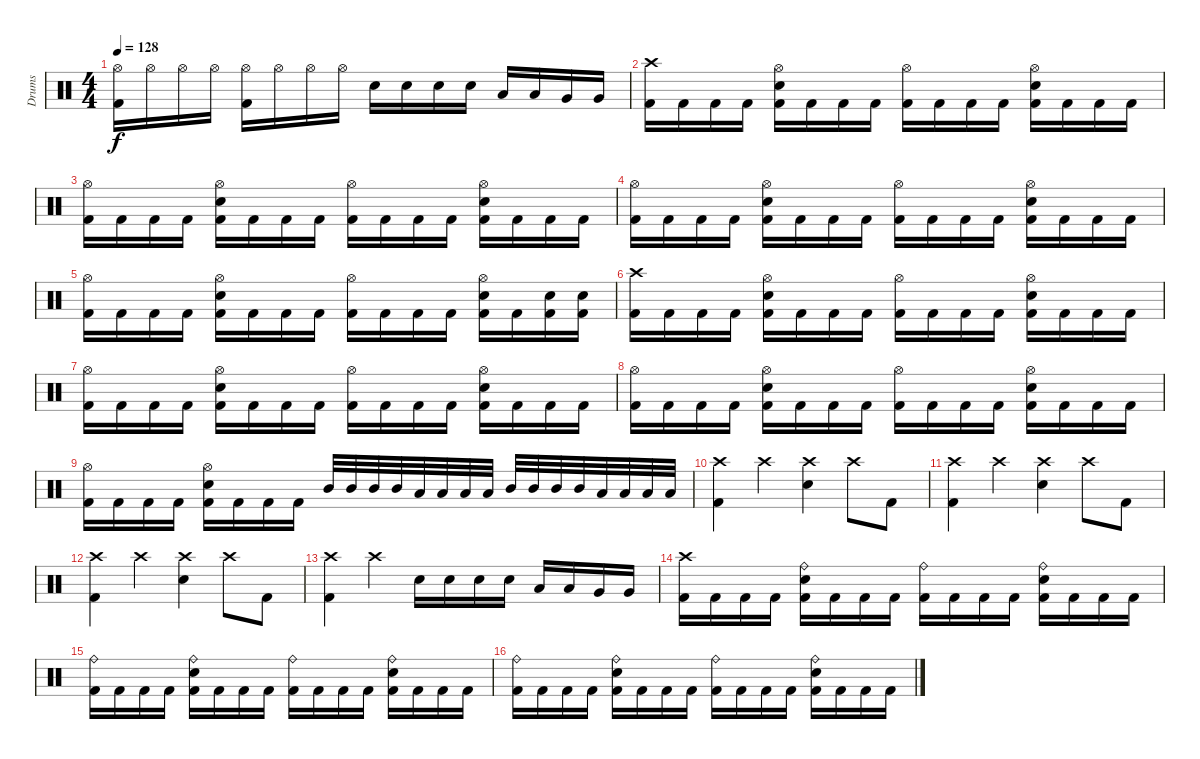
\track ("Drums" "Drums") {instrument percussion}
\staff {score}
\articulation defaults
\ts (4 4)
\tempo 128
\clef neutral
\ks c
("Hi-Hat (open)" "Kick (hit) 2").16{dy f} "Hi-Hat (open)".16 "Hi-Hat (open)".16 "Hi-Hat (open)".16 ("Hi-Hat (open)" "Kick (hit) 2").16 "Hi-Hat (open)".16 "Hi-Hat (open)".16 "Hi-Hat (open)".16 "Electric Snare (hit)".16 "Electric Snare (hit)".16 "Electric Snare (hit)".16 "Electric Snare (hit)".16 "Low Tom (hit)".16 "Low Tom (hit)".16 "Very Low Tom (hit)".16 "Very Low Tom (hit)".16 |
("Crash high (hit)" "Kick (hit) 2").16 "Kick (hit) 2".16 "Kick (hit) 2".16 "Kick (hit) 2".16 ("Hi-Hat (open)" "Electric Snare (hit)" "Kick (hit) 2").16 "Kick (hit) 2".16 "Kick (hit) 2".16 "Kick (hit) 2".16 ("Hi-Hat (open)" "Kick (hit) 2").16 "Kick (hit) 2".16 "Kick (hit) 2".16 "Kick (hit) 2".16 ("Hi-Hat (open)" "Electric Snare (hit)" "Kick (hit) 2").16 "Kick (hit) 2".16 "Kick (hit) 2".16 "Kick (hit) 2".16 |
("Hi-Hat (open)" "Kick (hit) 2").16 "Kick (hit) 2".16 "Kick (hit) 2".16 "Kick (hit) 2".16 ("Hi-Hat (open)" "Electric Snare (hit)" "Kick (hit) 2").16 "Kick (hit) 2".16 "Kick (hit) 2".16 "Kick (hit) 2".16 ("Hi-Hat (open)" "Kick (hit) 2").16 "Kick (hit) 2".16 "Kick (hit) 2".16 "Kick (hit) 2".16 ("Hi-Hat (open)" "Electric Snare (hit)" "Kick (hit) 2").16 "Kick (hit) 2".16 "Kick (hit) 2".16 "Kick (hit) 2".16 |
("Hi-Hat (open)" "Kick (hit) 2").16 "Kick (hit) 2".16 "Kick (hit) 2".16 "Kick (hit) 2".16 ("Hi-Hat (open)" "Electric Snare (hit)" "Kick (hit) 2").16 "Kick (hit) 2".16 "Kick (hit) 2".16 "Kick (hit) 2".16 ("Hi-Hat (open)" "Kick (hit) 2").16 "Kick (hit) 2".16 "Kick (hit) 2".16 "Kick (hit) 2".16 ("Hi-Hat (open)" "Electric Snare (hit)" "Kick (hit) 2").16 "Kick (hit) 2".16 "Kick (hit) 2".16 "Kick (hit) 2".16 |
("Hi-Hat (open)" "Kick (hit) 2").16 "Kick (hit) 2".16 "Kick (hit) 2".16 "Kick (hit) 2".16 ("Hi-Hat (open)" "Electric Snare (hit)" "Kick (hit) 2").16 "Kick (hit) 2".16 "Kick (hit) 2".16 "Kick (hit) 2".16 ("Hi-Hat (open)" "Kick (hit) 2").16 "Kick (hit) 2".16 "Kick (hit) 2".16 "Kick (hit) 2".16 ("Hi-Hat (open)" "Electric Snare (hit)" "Kick (hit) 2").16 "Kick (hit) 2".16 ("Electric Snare (hit)" "Kick (hit) 2").16 ("Electric Snare (hit)" "Kick (hit) 2").16 |
("Crash high (hit)" "Kick (hit) 2").16 "Kick (hit) 2".16 "Kick (hit) 2".16 "Kick (hit) 2".16 ("Hi-Hat (open)" "Electric Snare (hit)" "Kick (hit) 2").16 "Kick (hit) 2".16 "Kick (hit) 2".16 "Kick (hit) 2".16 ("Hi-Hat (open)" "Kick (hit) 2").16 "Kick (hit) 2".16 "Kick (hit) 2".16 "Kick (hit) 2".16 ("Hi-Hat (open)" "Electric Snare (hit)" "Kick (hit) 2").16 "Kick (hit) 2".16 "Kick (hit) 2".16 "Kick (hit) 2".16 |
("Hi-Hat (open)" "Kick (hit) 2").16 "Kick (hit) 2".16 "Kick (hit) 2".16 "Kick (hit) 2".16 ("Hi-Hat (open)" "Electric Snare (hit)" "Kick (hit) 2").16 "Kick (hit) 2".16 "Kick (hit) 2".16 "Kick (hit) 2".16 ("Hi-Hat (open)" "Kick (hit) 2").16 "Kick (hit) 2".16 "Kick (hit) 2".16 "Kick (hit) 2".16 ("Hi-Hat (open)" "Electric Snare (hit)" "Kick (hit) 2").16 "Kick (hit) 2".16 "Kick (hit) 2".16 "Kick (hit) 2".16 |
("Hi-Hat (open)" "Kick (hit) 2").16 "Kick (hit) 2".16 "Kick (hit) 2".16 "Kick (hit) 2".16 ("Hi-Hat (open)" "Electric Snare (hit)" "Kick (hit) 2").16 "Kick (hit) 2".16 "Kick (hit) 2".16 "Kick (hit) 2".16 ("Hi-Hat (open)" "Kick (hit) 2").16 "Kick (hit) 2".16 "Kick (hit) 2".16 "Kick (hit) 2".16 ("Hi-Hat (open)" "Electric Snare (hit)" "Kick (hit) 2").16 "Kick (hit) 2".16 "Kick (hit) 2".16 "Kick (hit) 2".16 |
("Hi-Hat (open)" "Kick (hit) 2").16 "Kick (hit) 2".16 "Kick (hit) 2".16 "Kick (hit) 2".16 ("Hi-Hat (open)" "Electric Snare (hit)" "Kick (hit) 2").16 "Kick (hit) 2".16 "Kick (hit) 2".16 "Kick (hit) 2".16 "Mid Tom (hit)".32 "Mid Tom (hit)".32 "Mid Tom (hit)".32 "Mid Tom (hit)".32 "Low Tom (hit)".32 "Low Tom (hit)".32 "Low Tom (hit)".32 "Low Tom (hit)".32 "Mid Tom (hit)".32 "Mid Tom (hit)".32 "Mid Tom (hit)".32 "Mid Tom (hit)".32 "Low Tom (hit)".32 "Low Tom (hit)".32 "Low Tom (hit)".32 "Low Tom (hit)".32 |
("Crash high (hit)" "Kick (hit) 2").4 "Crash high (hit)".4 ("Crash high (hit)" "Electric Snare (hit)").4 "Crash high (hit)".8 "Kick (hit) 2".8 |
("Crash high (hit)" "Kick (hit) 2").4 "Crash high (hit)".4 ("Crash high (hit)" "Electric Snare (hit)").4 "Crash high (hit)".8 "Kick (hit) 2".8 |
("Crash high (hit)" "Kick (hit) 2").4 "Crash high (hit)".4 ("Crash high (hit)" "Electric Snare (hit)").4 "Crash high (hit)".8 "Kick (hit) 2".8 |
("Crash high (hit)" "Kick (hit) 2").4 "Crash high (hit)".4 "Electric Snare (hit)".16 "Electric Snare (hit)".16 "Electric Snare (hit)".16 "Electric Snare (hit)".16 "Low Tom (hit)".16 "Low Tom (hit)".16 "Very Low Tom (hit)".16 "Very Low Tom (hit)".16 |
("Crash high (hit)" "Kick (hit) 2").16 "Kick (hit) 2".16 "Kick (hit) 2".16 "Kick (hit) 2".16 ("Ride (bell)" "Electric Snare (hit)" "Kick (hit) 2").16 "Kick (hit) 2".16 "Kick (hit) 2".16 "Kick (hit) 2".16 ("Ride (bell)" "Kick (hit) 2").16 "Kick (hit) 2".16 "Kick (hit) 2".16 "Kick (hit) 2".16 ("Ride (bell)" "Electric Snare (hit)" "Kick (hit) 2").16 "Kick (hit) 2".16 "Kick (hit) 2".16 "Kick (hit) 2".16 |
("Ride (bell)" "Kick (hit) 2").16 "Kick (hit) 2".16 "Kick (hit) 2".16 "Kick (hit) 2".16 ("Ride (bell)" "Electric Snare (hit)" "Kick (hit) 2").16 "Kick (hit) 2".16 "Kick (hit) 2".16 "Kick (hit) 2".16 ("Ride (bell)" "Kick (hit) 2").16 "Kick (hit) 2".16 "Kick (hit) 2".16 "Kick (hit) 2".16 ("Ride (bell)" "Electric Snare (hit)" "Kick (hit) 2").16 "Kick (hit) 2".16 "Kick (hit) 2".16 "Kick (hit) 2".16 |
("Ride (bell)" "Kick (hit) 2").16 "Kick (hit) 2".16 "Kick (hit) 2".16 "Kick (hit) 2".16 ("Ride (bell)" "Electric Snare (hit)" "Kick (hit) 2").16 "Kick (hit) 2".16 "Kick (hit) 2".16 "Kick (hit) 2".16 ("Ride (bell)" "Kick (hit) 2").16 "Kick (hit) 2".16 "Kick (hit) 2".16 "Kick (hit) 2".16 ("Ride (bell)" "Electric Snare (hit)" "Kick (hit) 2").16 "Kick (hit) 2".16 "Kick (hit) 2".16 "Kick (hit) 2".16
